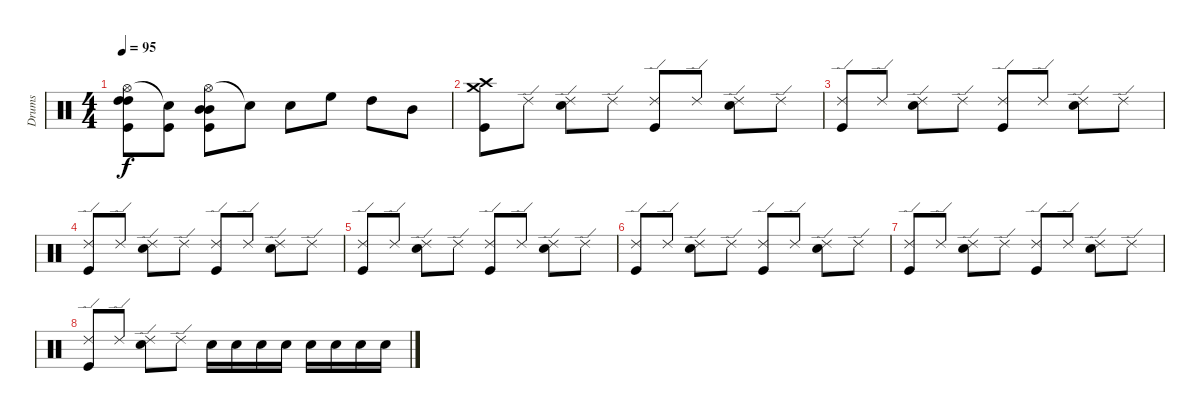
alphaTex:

\track ("Drums" "Drums") {instrument percussion}
\staff {score}
\articulation defaults
\ts (4 4)
\tempo 95
\clef neutral
\ks c
("Hi-Hat (open)" "High Tom (hit)" "Kick (hit)" "High Tom (hit)").8{dy f} ("Snare (hit)"{t} "Kick (hit)").8 ("Hi-Hat (open)" "Mid Tom (hit)" "Kick (hit)" "Mid Tom (hit)").8 "Snare (hit)"{t}.8 "Snare (hit) 2".8 "High Floor Tom (hit)".8 "High Tom (hit)".8 "Mid Tom (hit)".8 |
("Crash medium (hit)" "Crash high (hit)" "Kick (hit)").8 "Ride (edge) 2".8 ("Ride (edge) 2" "Electric Snare (hit)").8 "Ride (edge) 2".8 ("Ride (edge) 2" "Kick (hit)").8 "Ride (edge) 2".8 ("Ride (edge) 2" "Electric Snare (hit)").8 "Ride (edge) 2".8 |
("Ride (edge) 2" "Kick (hit)").8 "Ride (edge) 2".8 ("Ride (edge) 2" "Electric Snare (hit)").8 "Ride (edge) 2".8 ("Ride (edge) 2" "Kick (hit)").8 "Ride (edge) 2".8 ("Ride (edge) 2" "Electric Snare (hit)").8 "Ride (edge) 2".8 |
("Ride (edge) 2" "Kick (hit)").8 "Ride (edge) 2".8 ("Ride (edge) 2" "Electric Snare (hit)").8 "Ride (edge) 2".8 ("Ride (edge) 2" "Kick (hit)").8 "Ride (edge) 2".8 ("Ride (edge) 2" "Electric Snare (hit)").8 "Ride (edge) 2".8 |
("Ride (edge) 2" "Kick (hit)").8 "Ride (edge) 2".8 ("Ride (edge) 2" "Electric Snare (hit)").8 "Ride (edge) 2".8 ("Ride (edge) 2" "Kick (hit)").8 "Ride (edge) 2".8 ("Ride (edge) 2" "Electric Snare (hit)").8 "Ride (edge) 2".8 |
("Ride (edge) 2" "Kick (hit)").8 "Ride (edge) 2".8 ("Ride (edge) 2" "Electric Snare (hit)").8 "Ride (edge) 2".8 ("Ride (edge) 2" "Kick (hit)").8 "Ride (edge) 2".8 ("Ride (edge) 2" "Electric Snare (hit)").8 "Ride (edge) 2".8 |
("Ride (edge) 2" "Kick (hit)").8 "Ride (edge) 2".8 ("Ride (edge) 2" "Electric Snare (hit)").8 "Ride (edge) 2".8 ("Ride (edge) 2" "Kick (hit)").8 "Ride (edge) 2".8 ("Ride (edge) 2" "Electric Snare (hit)").8 "Ride (edge) 2".8 |
("Ride (edge) 2" "Kick (hit)").8 "Ride (edge) 2".8 ("Ride (edge) 2" "Electric Snare (hit)").8 "Ride (edge) 2".8 "Snare (hit) 2".16 "Snare (hit) 2".16 "Snare (hit) 2".16 "Snare (hit) 2".16 "Snare (hit) 2".16 "Snare (hit) 2".16 "Snare (hit) 2".16 "Snare (hit) 2".16
